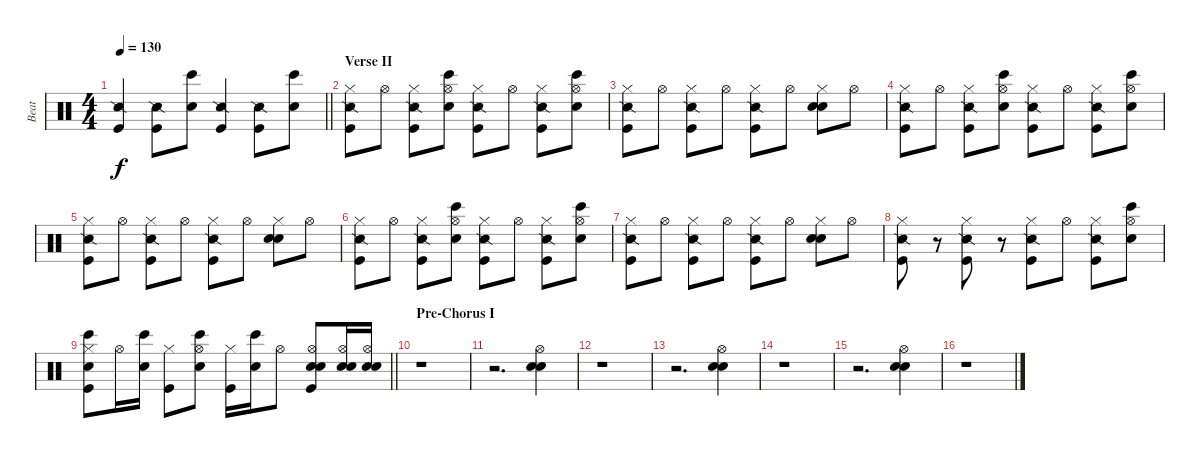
\track ("Beat" "Beat") {instrument percussion}
\staff {score}
\articulation defaults
\ts (4 4)
\tempo 130
\clef neutral
\barLineRight lightlight
\ks c
("Snare (side stick) 2" "Kick (hit)").4{dy f} ("Snare (side stick) 2" "Kick (hit)").8 ("Hand Clap (hit)" "Bongo High (hit)").8 ("Snare (side stick) 2" "Kick (hit)").4 ("Snare (side stick) 2" "Kick (hit)").8 ("Hand Clap (hit)" "Bongo High (hit)").8 |
\section ("" "Verse II")
("Hi-Hat (closed)" "Snare (side stick) 2" "Kick (hit)").8 "Hi-Hat (open)".8 ("Hi-Hat (closed)" "Snare (side stick) 2" "Kick (hit)").8 ("Hi-Hat (open)" "Hand Clap (hit)" "Bongo High (hit)").8 ("Hi-Hat (closed)" "Snare (side stick) 2" "Kick (hit)").8 "Hi-Hat (open)".8 ("Hi-Hat (closed)" "Snare (side stick) 2" "Kick (hit)").8 ("Hi-Hat (open)" "Hand Clap (hit)" "Bongo High (hit)").8 |
("Hi-Hat (closed)" "Snare (side stick) 2" "Kick (hit)").8 "Hi-Hat (open)".8 ("Hi-Hat (closed)" "Snare (side stick) 2" "Kick (hit)").8 "Hi-Hat (open)".8 ("Hi-Hat (closed)" "Snare (side stick) 2" "Kick (hit)").8 "Hi-Hat (open)".8 ("Hi-Hat (closed)" "Hand Clap (hit)" "Snare (hit) 2").8 "Hi-Hat (open)".8 |
("Hi-Hat (closed)" "Snare (side stick) 2" "Kick (hit)").8 "Hi-Hat (open)".8 ("Hi-Hat (closed)" "Snare (side stick) 2" "Kick (hit)").8 ("Hi-Hat (open)" "Hand Clap (hit)" "Bongo High (hit)").8 ("Hi-Hat (closed)" "Snare (side stick) 2" "Kick (hit)").8 "Hi-Hat (open)".8 ("Hi-Hat (closed)" "Snare (side stick) 2" "Kick (hit)").8 ("Hi-Hat (open)" "Hand Clap (hit)" "Bongo High (hit)").8 |
("Hi-Hat (closed)" "Snare (side stick) 2" "Kick (hit)").8 "Hi-Hat (open)".8 ("Hi-Hat (closed)" "Snare (side stick) 2" "Kick (hit)").8 "Hi-Hat (open)".8 ("Hi-Hat (closed)" "Snare (side stick) 2" "Kick (hit)").8 "Hi-Hat (open)".8 ("Hi-Hat (closed)" "Hand Clap (hit)" "Snare (hit) 2").8 "Hi-Hat (open)".8 |
("Hi-Hat (closed)" "Snare (side stick) 2" "Kick (hit)").8 "Hi-Hat (open)".8 ("Hi-Hat (closed)" "Snare (side stick) 2" "Kick (hit)").8 ("Hi-Hat (open)" "Hand Clap (hit)" "Bongo High (hit)").8 ("Hi-Hat (closed)" "Snare (side stick) 2" "Kick (hit)").8 "Hi-Hat (open)".8 ("Hi-Hat (closed)" "Snare (side stick) 2" "Kick (hit)").8 ("Hi-Hat (open)" "Hand Clap (hit)" "Bongo High (hit)").8 |
("Hi-Hat (closed)" "Snare (side stick) 2" "Kick (hit)").8 "Hi-Hat (open)".8 ("Hi-Hat (closed)" "Snare (side stick) 2" "Kick (hit)").8 "Hi-Hat (open)".8 ("Hi-Hat (closed)" "Snare (side stick) 2" "Kick (hit)").8 "Hi-Hat (open)".8 ("Hi-Hat (closed)" "Hand Clap (hit)" "Snare (hit) 2").8 "Hi-Hat (open)".8 |
("Hi-Hat (closed)" "Snare (side stick) 2" "Kick (hit)").8 r.8 ("Hi-Hat (closed)" "Snare (side stick) 2" "Kick (hit)").8 r.8 ("Hi-Hat (closed)" "Snare (side stick) 2" "Kick (hit)").8 "Hi-Hat (open)".8 ("Hi-Hat (closed)" "Snare (side stick) 2" "Kick (hit)").8 ("Hi-Hat (open)" "Hand Clap (hit)" "Bongo High (hit)").8 |
\barLineRight lightlight
("Hi-Hat (closed)" "Hand Clap (hit)" "Bongo High (hit)" "Kick (hit)").8 "Hi-Hat (open)".16 ("Hand Clap (hit)" "Bongo High (hit)").16 ("Hi-Hat (closed)" "Kick (hit)").8 ("Hi-Hat (open)" "Hand Clap (hit)" "Bongo High (hit)").8 ("Hi-Hat (closed)" "Kick (hit)").16 ("Hand Clap (hit)" "Bongo High (hit)").16 "Hi-Hat (open)".8 ("Hi-Hat (open)" "Hand Clap (hit)" "Snare (hit) 2" "Kick (hit)").8 ("Hi-Hat (open)" "Hand Clap (hit)" "Snare (hit) 2").16 ("Hi-Hat (open)" "Hand Clap (hit)" "Snare (hit) 2").16 |
\section ("" "Pre-Chorus I")
r.1 |
r.2{d} ("Hi-Hat (open)" "Hand Clap (hit)" "Snare (hit) 2").4 |
r.1 |
r.2{d} ("Hi-Hat (open)" "Hand Clap (hit)" "Snare (hit) 2").4 |
r.1 |
r.2{d} ("Hi-Hat (open)" "Hand Clap (hit)" "Snare (hit) 2").4 |
r.1
